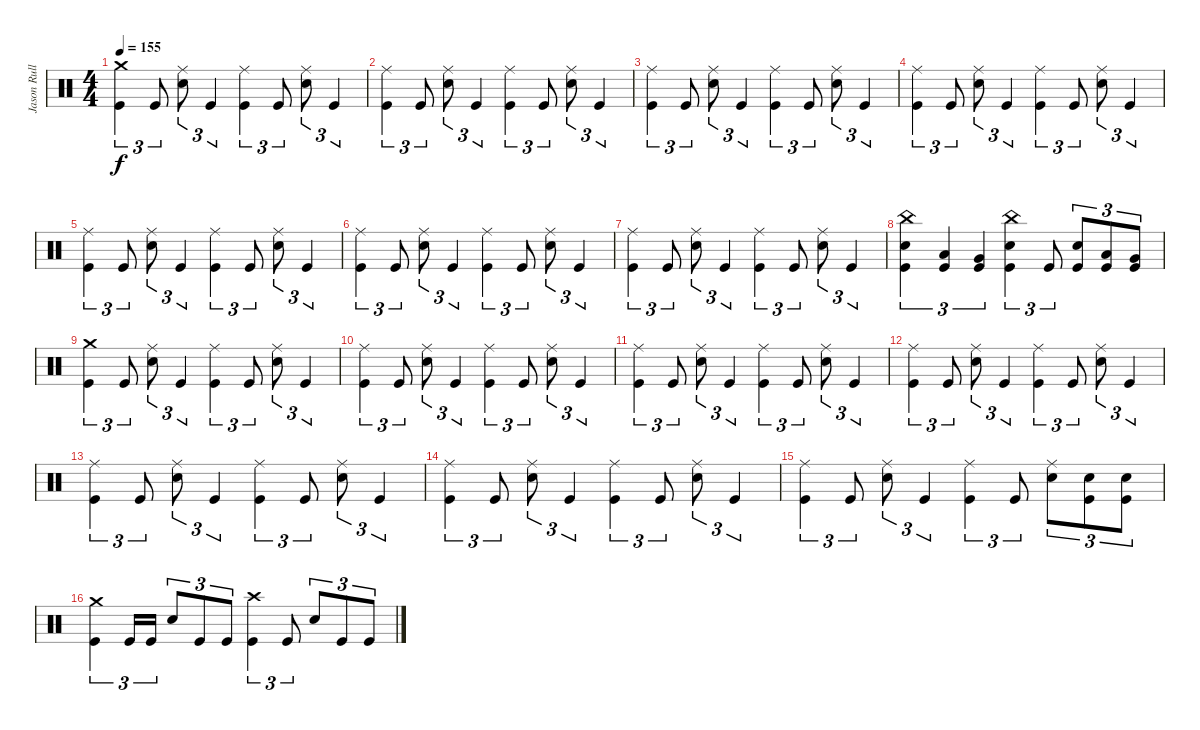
\track ("Jason Rullo - BATTERIE" "Jason Rull") {instrument percussion}
\staff {score}
\articulation defaults
\ts (4 4)
\tempo 155
\clef neutral
\ks c
("Crash medium (hit)" "Kick (hit)").4{tu (3 2) dy f} "Kick (hit)".8{tu (3 2)} ("Ride (middle)" "Snare (hit) 2").8{tu (3 2)} "Kick (hit)".4{tu (3 2)} ("Ride (middle)" "Kick (hit)").4{tu (3 2)} "Kick (hit)".8{tu (3 2)} ("Ride (middle)" "Snare (hit) 2").8{tu (3 2)} "Kick (hit)".4{tu (3 2)} |
("Ride (middle)" "Kick (hit)").4{tu (3 2)} "Kick (hit)".8{tu (3 2)} ("Ride (middle)" "Snare (hit) 2").8{tu (3 2)} "Kick (hit)".4{tu (3 2)} ("Ride (middle)" "Kick (hit)").4{tu (3 2)} "Kick (hit)".8{tu (3 2)} ("Ride (middle)" "Snare (hit) 2").8{tu (3 2)} "Kick (hit)".4{tu (3 2)} |
("Ride (middle)" "Kick (hit)").4{tu (3 2)} "Kick (hit)".8{tu (3 2)} ("Ride (middle)" "Snare (hit) 2").8{tu (3 2)} "Kick (hit)".4{tu (3 2)} ("Ride (middle)" "Kick (hit)").4{tu (3 2)} "Kick (hit)".8{tu (3 2)} ("Ride (middle)" "Snare (hit) 2").8{tu (3 2)} "Kick (hit)".4{tu (3 2)} |
("Ride (middle)" "Kick (hit)").4{tu (3 2)} "Kick (hit)".8{tu (3 2)} ("Ride (middle)" "Snare (hit) 2").8{tu (3 2)} "Kick (hit)".4{tu (3 2)} ("Ride (middle)" "Kick (hit)").4{tu (3 2)} "Kick (hit)".8{tu (3 2)} ("Ride (middle)" "Snare (hit) 2").8{tu (3 2)} "Kick (hit)".4{tu (3 2)} |
("Ride (middle)" "Kick (hit)").4{tu (3 2)} "Kick (hit)".8{tu (3 2)} ("Ride (middle)" "Snare (hit) 2").8{tu (3 2)} "Kick (hit)".4{tu (3 2)} ("Ride (middle)" "Kick (hit)").4{tu (3 2)} "Kick (hit)".8{tu (3 2)} ("Ride (middle)" "Snare (hit) 2").8{tu (3 2)} "Kick (hit)".4{tu (3 2)} |
("Ride (middle)" "Kick (hit)").4{tu (3 2)} "Kick (hit)".8{tu (3 2)} ("Ride (middle)" "Snare (hit) 2").8{tu (3 2)} "Kick (hit)".4{tu (3 2)} ("Ride (middle)" "Kick (hit)").4{tu (3 2)} "Kick (hit)".8{tu (3 2)} ("Ride (middle)" "Snare (hit) 2").8{tu (3 2)} "Kick (hit)".4{tu (3 2)} |
("Ride (middle)" "Kick (hit)").4{tu (3 2)} "Kick (hit)".8{tu (3 2)} ("Ride (middle)" "Snare (hit) 2").8{tu (3 2)} "Kick (hit)".4{tu (3 2)} ("Ride (middle)" "Kick (hit)").4{tu (3 2)} "Kick (hit)".8{tu (3 2)} ("Ride (middle)" "Snare (hit) 2").8{tu (3 2)} "Kick (hit)".4{tu (3 2)} |
("China (hit)" "Snare (hit) 2" "Kick (hit)").4{tu (3 2)} ("Low Tom (hit)" "Kick (hit)").4{tu (3 2)} ("Very Low Tom (hit)" "Kick (hit)").4{tu (3 2)} ("China (hit)" "Snare (hit) 2" "Kick (hit)").4{tu (3 2)} "Kick (hit)".8{tu (3 2)} ("Snare (hit) 2" "Kick (hit)").8{tu (3 2)} ("Low Tom (hit)" "Kick (hit)").8{tu (3 2)} ("Very Low Tom (hit)" "Kick (hit)").8{tu (3 2)} |
("Crash medium (hit)" "Kick (hit)").4{tu (3 2)} "Kick (hit)".8{tu (3 2)} ("Ride (middle)" "Snare (hit) 2").8{tu (3 2)} "Kick (hit)".4{tu (3 2)} ("Ride (middle)" "Kick (hit)").4{tu (3 2)} "Kick (hit)".8{tu (3 2)} ("Ride (middle)" "Snare (hit) 2").8{tu (3 2)} "Kick (hit)".4{tu (3 2)} |
("Ride (middle)" "Kick (hit)").4{tu (3 2)} "Kick (hit)".8{tu (3 2)} ("Ride (middle)" "Snare (hit) 2").8{tu (3 2)} "Kick (hit)".4{tu (3 2)} ("Ride (middle)" "Kick (hit)").4{tu (3 2)} "Kick (hit)".8{tu (3 2)} ("Ride (middle)" "Snare (hit) 2").8{tu (3 2)} "Kick (hit)".4{tu (3 2)} |
("Ride (middle)" "Kick (hit)").4{tu (3 2)} "Kick (hit)".8{tu (3 2)} ("Ride (middle)" "Snare (hit) 2").8{tu (3 2)} "Kick (hit)".4{tu (3 2)} ("Ride (middle)" "Kick (hit)").4{tu (3 2)} "Kick (hit)".8{tu (3 2)} ("Ride (middle)" "Snare (hit) 2").8{tu (3 2)} "Kick (hit)".4{tu (3 2)} |
("Ride (middle)" "Kick (hit)").4{tu (3 2)} "Kick (hit)".8{tu (3 2)} ("Ride (middle)" "Snare (hit) 2").8{tu (3 2)} "Kick (hit)".4{tu (3 2)} ("Ride (middle)" "Kick (hit)").4{tu (3 2)} "Kick (hit)".8{tu (3 2)} ("Ride (middle)" "Snare (hit) 2").8{tu (3 2)} "Kick (hit)".4{tu (3 2)} |
("Ride (middle)" "Kick (hit)").4{tu (3 2)} "Kick (hit)".8{tu (3 2)} ("Ride (middle)" "Snare (hit) 2").8{tu (3 2)} "Kick (hit)".4{tu (3 2)} ("Ride (middle)" "Kick (hit)").4{tu (3 2)} "Kick (hit)".8{tu (3 2)} ("Ride (middle)" "Snare (hit) 2").8{tu (3 2)} "Kick (hit)".4{tu (3 2)} |
("Ride (middle)" "Kick (hit)").4{tu (3 2)} "Kick (hit)".8{tu (3 2)} ("Ride (middle)" "Snare (hit) 2").8{tu (3 2)} "Kick (hit)".4{tu (3 2)} ("Ride (middle)" "Kick (hit)").4{tu (3 2)} "Kick (hit)".8{tu (3 2)} ("Ride (middle)" "Snare (hit) 2").8{tu (3 2)} "Kick (hit)".4{tu (3 2)} |
("Ride (middle)" "Kick (hit)").4{tu (3 2)} "Kick (hit)".8{tu (3 2)} ("Ride (middle)" "Snare (hit) 2").8{tu (3 2)} "Kick (hit)".4{tu (3 2)} ("Ride (middle)" "Kick (hit)").4{tu (3 2)} "Kick (hit)".8{tu (3 2)} ("Ride (middle)" "Snare (hit) 2").8{tu (3 2)} ("Snare (hit) 2" "Kick (hit)").8{tu (3 2)} ("Snare (hit) 2" "Kick (hit)").8{tu (3 2)} |
("Crash medium (hit)" "Kick (hit)").4{tu (3 2)} "Kick (hit)".16{tu (3 2)} "Kick (hit)".16{tu (3 2)} "Snare (hit) 2".8{tu (3 2)} "Kick (hit)".8{tu (3 2)} "Kick (hit)".8{tu (3 2)} ("Crash high (hit)" "Kick (hit)").4{tu (3 2)} "Kick (hit)".8{tu (3 2)} "Snare (hit) 2".8{tu (3 2)} "Kick (hit)".8{tu (3 2)} "Kick (hit)".8{tu (3 2)}
